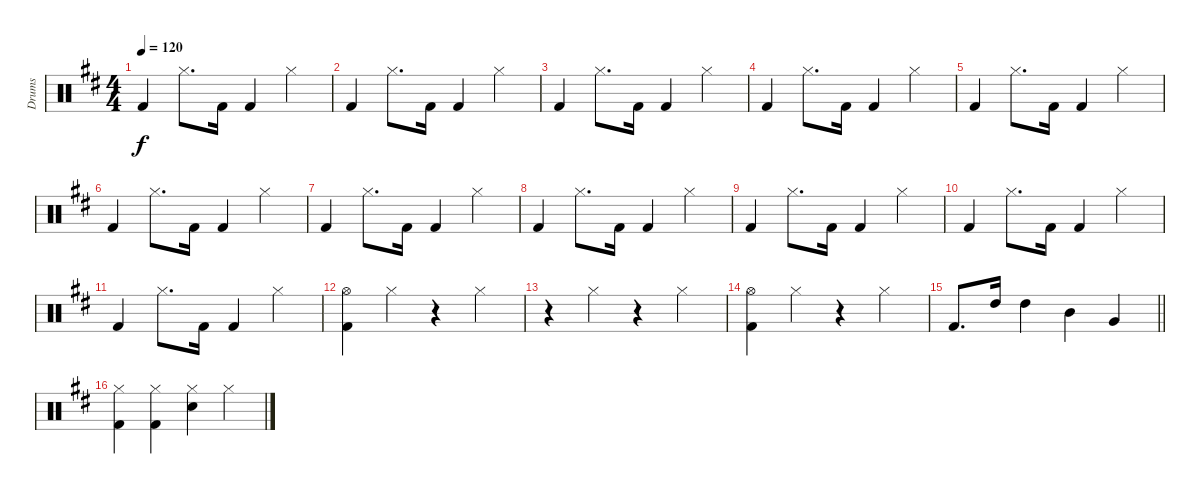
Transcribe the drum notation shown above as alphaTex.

\track ("Drums" "Drums") {instrument percussion}
\staff {score}
\articulation defaults
\ts (4 4)
\tempo 120
\clef neutral
\ks d "Kick (hit) 2".4{dy f} "Hi-Hat (closed)".8{d} "Kick (hit) 2".16 "Kick (hit) 2".4 "Hi-Hat (closed)".4
|
"Kick (hit) 2".4 "Hi-Hat (closed)".8{d} "Kick (hit) 2".16 "Kick (hit) 2".4 "Hi-Hat (closed)".4 |
"Kick (hit) 2".4 "Hi-Hat (closed)".8{d} "Kick (hit) 2".16 "Kick (hit) 2".4 "Hi-Hat (closed)".4 |
"Kick (hit) 2".4 "Hi-Hat (closed)".8{d} "Kick (hit) 2".16 "Kick (hit) 2".4 "Hi-Hat (closed)".4 |
"Kick (hit) 2".4 "Hi-Hat (closed)".8{d} "Kick (hit) 2".16 "Kick (hit) 2".4 "Hi-Hat (closed)".4 |
"Kick (hit) 2".4 "Hi-Hat (closed)".8{d} "Kick (hit) 2".16 "Kick (hit) 2".4 "Hi-Hat (closed)".4 |
"Kick (hit) 2".4 "Hi-Hat (closed)".8{d} "Kick (hit) 2".16 "Kick (hit) 2".4 "Hi-Hat (closed)".4 |
"Kick (hit) 2".4 "Hi-Hat (closed)".8{d} "Kick (hit) 2".16 "Kick (hit) 2".4 "Hi-Hat (closed)".4 |
"Kick (hit) 2".4 "Hi-Hat (closed)".8{d} "Kick (hit) 2".16 "Kick (hit) 2".4 "Hi-Hat (closed)".4 |
"Kick (hit) 2".4 "Hi-Hat (closed)".8{d} "Kick (hit) 2".16 "Kick (hit) 2".4 "Hi-Hat (closed)".4 |
"Kick (hit) 2".4 "Hi-Hat (closed)".8{d} "Kick (hit) 2".16 "Kick (hit) 2".4 "Hi-Hat (closed)".4 |
("Hi-Hat (open)" "Kick (hit) 2").4 "Hi-Hat (closed)".4 r.4 "Hi-Hat (closed)".4 |
r.4 "Hi-Hat (closed)".4 r.4 "Hi-Hat (closed)".4 |
("Hi-Hat (open)" "Kick (hit) 2").4 "Hi-Hat (closed)".4 r.4 "Hi-Hat (closed)".4 |
\barLineRight lightlight "Kick (hit) 2".8{d} "High Tom (hit)".16 "High Tom (hit)".4 "Mid Tom (hit)".4 "Very Low Tom (hit)".4
|
("Hi-Hat (closed)" "Kick (hit) 2").4 ("Hi-Hat (closed)" "Kick (hit) 2").4 ("Hi-Hat (closed)" "Snare (hit) 2").4 "Hi-Hat (closed)".4
